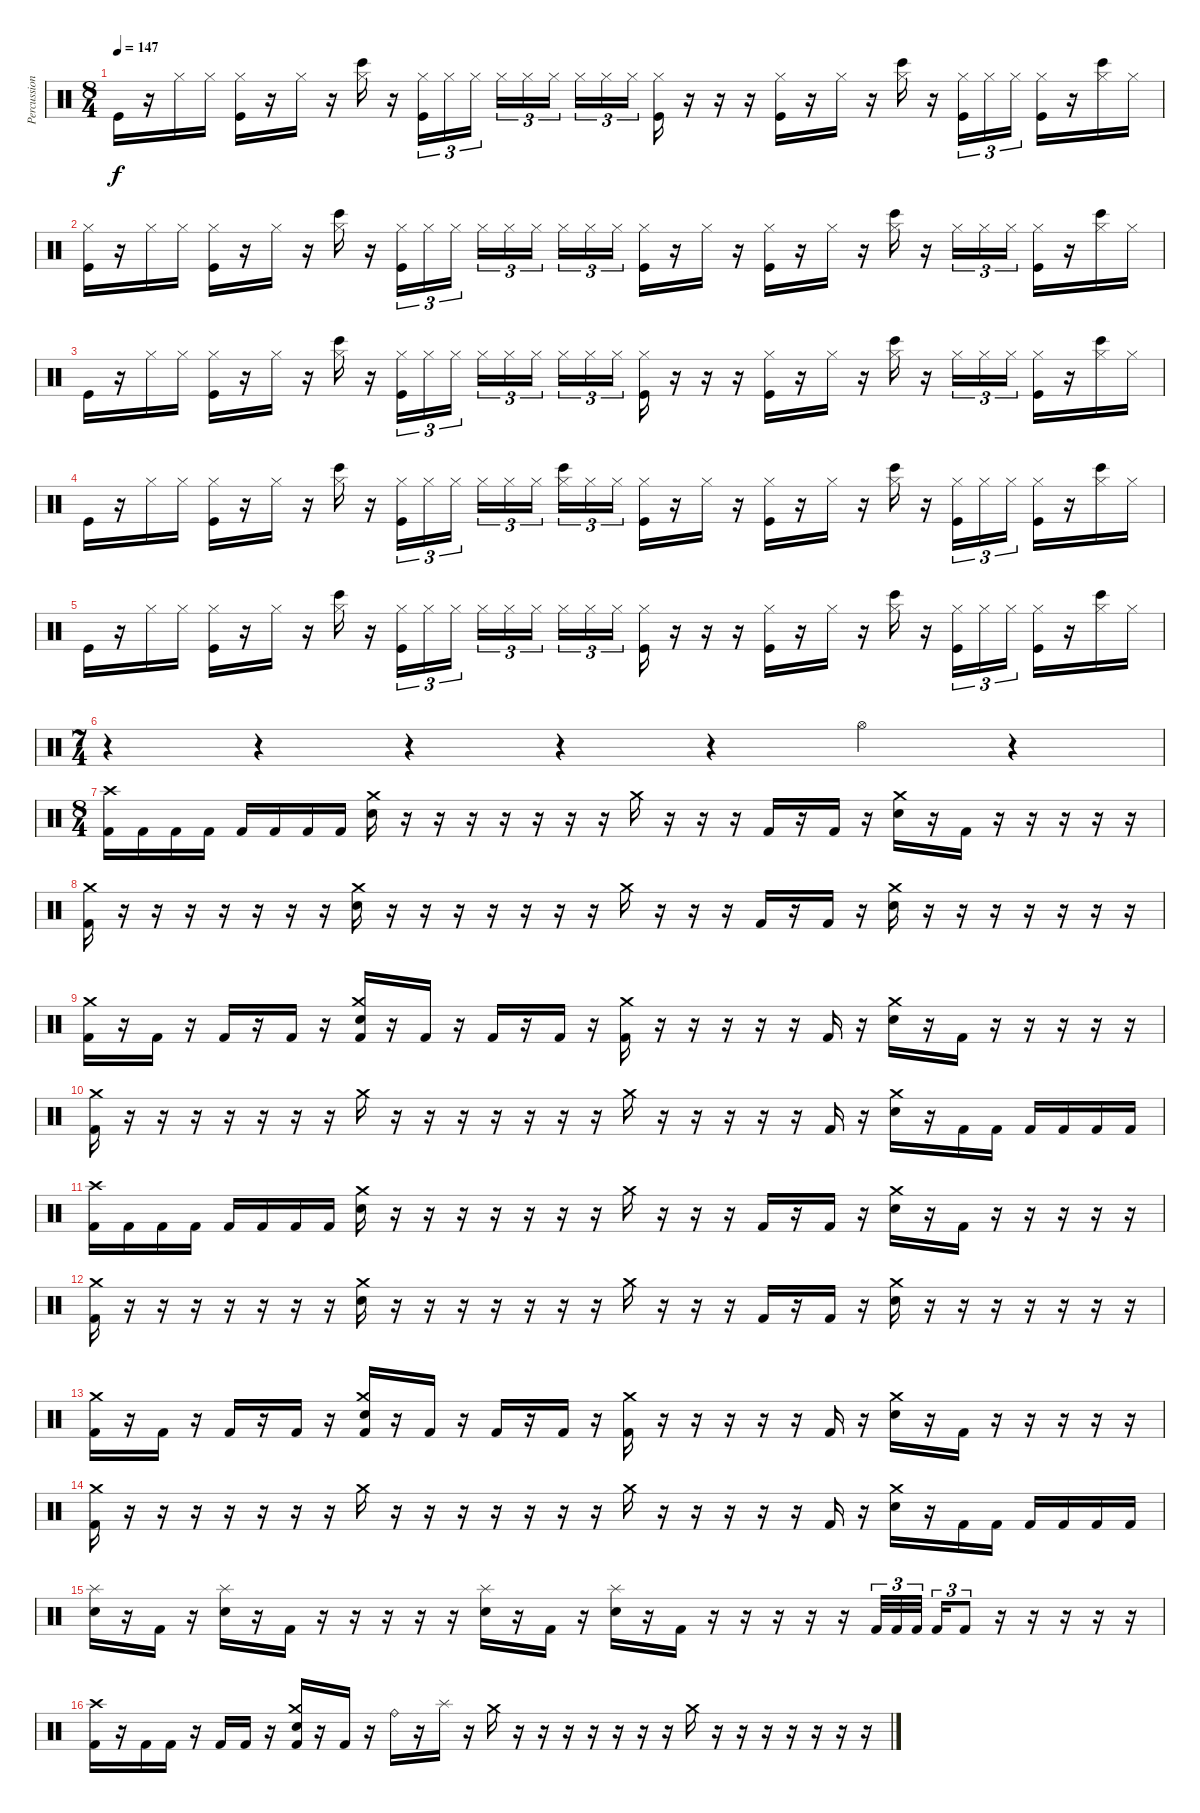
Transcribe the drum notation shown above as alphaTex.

\track ("Percussion" "Percussion") {instrument percussion}
\staff {score}
\articulation defaults
\ts (8 4)
\tempo 147
\clef neutral
\ks c "Kick (hit)".16{dy f}
r.16 "Hi-Hat (closed)".16 "Hi-Hat (closed)".16 ("Hi-Hat (closed)" "Kick (hit)").16 r.16 "Hi-Hat (closed)".16 r.16 ("Hi-Hat (closed)" "Bongo High (hit)").16 r.16 ("Hi-Hat (closed)" "Kick (hit)").16{tu (3 2)} "Hi-Hat (closed)".16{tu (3 2)} "Hi-Hat (closed)".16{tu (3 2)} "Hi-Hat (closed)".16{tu (3 2)} "Hi-Hat (closed)".16{tu (3 2)} "Hi-Hat (closed)".16{tu (3 2) beam splitsecondary} "Hi-Hat (closed)".16{tu (3 2)} "Hi-Hat (closed)".16{tu (3 2)} "Hi-Hat (closed)".16{tu (3 2)} ("Hi-Hat (closed)" "Kick (hit)").16 r.16 r.16 r.16 ("Hi-Hat (closed)" "Kick (hit)").16 r.16 "Hi-Hat (closed)".16 r.16 ("Hi-Hat (closed)" "Bongo High (hit)").16 r.16 ("Hi-Hat (closed)" "Kick (hit)").16{tu (3 2)} "Hi-Hat (closed)".16{tu (3 2)} "Hi-Hat (closed)".16{tu (3 2)} ("Hi-Hat (closed)" "Kick (hit)").16 r.16 ("Hi-Hat (closed)" "Bongo High (hit)").16 "Hi-Hat (closed)".16 |
("Hi-Hat (closed)" "Kick (hit)").16 r.16 "Hi-Hat (closed)".16 "Hi-Hat (closed)".16 ("Hi-Hat (closed)" "Kick (hit)").16 r.16 "Hi-Hat (closed)".16 r.16 ("Hi-Hat (closed)" "Bongo High (hit)").16 r.16 ("Hi-Hat (closed)" "Kick (hit)").16{tu (3 2)} "Hi-Hat (closed)".16{tu (3 2)} "Hi-Hat (closed)".16{tu (3 2)} "Hi-Hat (closed)".16{tu (3 2)} "Hi-Hat (closed)".16{tu (3 2)} "Hi-Hat (closed)".16{tu (3 2) beam splitsecondary} "Hi-Hat (closed)".16{tu (3 2)} "Hi-Hat (closed)".16{tu (3 2)} "Hi-Hat (closed)".16{tu (3 2)} ("Hi-Hat (closed)" "Kick (hit)").16 r.16 "Hi-Hat (closed)".16 r.16 ("Hi-Hat (closed)" "Kick (hit)").16 r.16 "Hi-Hat (closed)".16 r.16 ("Hi-Hat (closed)" "Bongo High (hit)").16 r.16 "Hi-Hat (closed)".16{tu (3 2)} "Hi-Hat (closed)".16{tu (3 2)} "Hi-Hat (closed)".16{tu (3 2)} ("Hi-Hat (closed)" "Kick (hit)").16 r.16 ("Hi-Hat (closed)" "Bongo High (hit)").16 "Hi-Hat (closed)".16 |
"Kick (hit)".16 r.16 "Hi-Hat (closed)".16 "Hi-Hat (closed)".16 ("Hi-Hat (closed)" "Kick (hit)").16 r.16 "Hi-Hat (closed)".16 r.16 ("Hi-Hat (closed)" "Bongo High (hit)").16 r.16 ("Hi-Hat (closed)" "Kick (hit)").16{tu (3 2)} "Hi-Hat (closed)".16{tu (3 2)} "Hi-Hat (closed)".16{tu (3 2)} "Hi-Hat (closed)".16{tu (3 2)} "Hi-Hat (closed)".16{tu (3 2)} "Hi-Hat (closed)".16{tu (3 2) beam splitsecondary} "Hi-Hat (closed)".16{tu (3 2)} "Hi-Hat (closed)".16{tu (3 2)} "Hi-Hat (closed)".16{tu (3 2)} ("Hi-Hat (closed)" "Kick (hit)").16 r.16 r.16 r.16 ("Hi-Hat (closed)" "Kick (hit)").16 r.16 "Hi-Hat (closed)".16 r.16 ("Hi-Hat (closed)" "Bongo High (hit)").16 r.16 "Hi-Hat (closed)".16{tu (3 2)} "Hi-Hat (closed)".16{tu (3 2)} "Hi-Hat (closed)".16{tu (3 2)} ("Hi-Hat (closed)" "Kick (hit)").16 r.16 ("Hi-Hat (closed)" "Bongo High (hit)").16 "Hi-Hat (closed)".16 |
"Kick (hit)".16 r.16 "Hi-Hat (closed)".16 "Hi-Hat (closed)".16 ("Hi-Hat (closed)" "Kick (hit)").16 r.16 "Hi-Hat (closed)".16 r.16 ("Hi-Hat (closed)" "Bongo High (hit)").16 r.16 ("Hi-Hat (closed)" "Kick (hit)").16{tu (3 2)} "Hi-Hat (closed)".16{tu (3 2)} "Hi-Hat (closed)".16{tu (3 2)} "Hi-Hat (closed)".16{tu (3 2)} "Hi-Hat (closed)".16{tu (3 2)} "Hi-Hat (closed)".16{tu (3 2) beam splitsecondary} ("Hi-Hat (closed)" "Bongo High (hit)").16{tu (3 2)} "Hi-Hat (closed)".16{tu (3 2)} "Hi-Hat (closed)".16{tu (3 2)} ("Hi-Hat (closed)" "Kick (hit)").16 r.16 "Hi-Hat (closed)".16 r.16 ("Hi-Hat (closed)" "Kick (hit)").16 r.16 "Hi-Hat (closed)".16 r.16 ("Hi-Hat (closed)" "Bongo High (hit)").16 r.16 ("Hi-Hat (closed)" "Kick (hit)").16{tu (3 2)} "Hi-Hat (closed)".16{tu (3 2)} "Hi-Hat (closed)".16{tu (3 2)} ("Hi-Hat (closed)" "Kick (hit)").16 r.16 ("Hi-Hat (closed)" "Bongo High (hit)").16 "Hi-Hat (closed)".16 |
"Kick (hit)".16 r.16 "Hi-Hat (closed)".16 "Hi-Hat (closed)".16 ("Hi-Hat (closed)" "Kick (hit)").16 r.16 "Hi-Hat (closed)".16 r.16 ("Hi-Hat (closed)" "Bongo High (hit)").16 r.16 ("Hi-Hat (closed)" "Kick (hit)").16{tu (3 2)} "Hi-Hat (closed)".16{tu (3 2)} "Hi-Hat (closed)".16{tu (3 2)} "Hi-Hat (closed)".16{tu (3 2)} "Hi-Hat (closed)".16{tu (3 2)} "Hi-Hat (closed)".16{tu (3 2) beam splitsecondary} "Hi-Hat (closed)".16{tu (3 2)} "Hi-Hat (closed)".16{tu (3 2)} "Hi-Hat (closed)".16{tu (3 2)} ("Hi-Hat (closed)" "Kick (hit)").16 r.16 r.16 r.16 ("Hi-Hat (closed)" "Kick (hit)").16 r.16 "Hi-Hat (closed)".16 r.16 ("Hi-Hat (closed)" "Bongo High (hit)").16 r.16 ("Hi-Hat (closed)" "Kick (hit)").16{tu (3 2)} "Hi-Hat (closed)".16{tu (3 2)} "Hi-Hat (closed)".16{tu (3 2)} ("Hi-Hat (closed)" "Kick (hit)").16 r.16 ("Hi-Hat (closed)" "Bongo High (hit)").16 "Hi-Hat (closed)".16 |
\ts (7 4)
r.4 r.4 r.4 r.4 r.4 "Hi-Hat (open)".4 r.4 |
\ts (8 4)
("Crash high (hit)" "Kick (hit) 2").16 "Kick (hit) 2".16 "Kick (hit) 2".16 "Kick (hit) 2".16 "Kick (hit) 2".16 "Kick (hit) 2".16 "Kick (hit) 2".16 "Kick (hit) 2".16 ("Crash medium (hit)" "Electric Snare (hit)").16 r.16 r.16 r.16 r.16 r.16 r.16 r.16 "Crash medium (hit)".16 r.16 r.16 r.16 "Kick (hit) 2".16 r.16 "Kick (hit) 2".16 r.16 ("Crash medium (hit)" "Electric Snare (hit)").16 r.16 "Kick (hit) 2".16 r.16 r.16 r.16 r.16 r.16 |
("Crash medium (hit)" "Kick (hit) 2").16 r.16 r.16 r.16 r.16 r.16 r.16 r.16 ("Crash medium (hit)" "Electric Snare (hit)").16 r.16 r.16 r.16 r.16 r.16 r.16 r.16 "Crash medium (hit)".16 r.16 r.16 r.16 "Kick (hit) 2".16 r.16 "Kick (hit) 2".16 r.16 ("Crash medium (hit)" "Electric Snare (hit)").16 r.16 r.16 r.16 r.16 r.16 r.16 r.16 |
("Crash medium (hit)" "Kick (hit) 2").16 r.16 "Kick (hit) 2".16 r.16 "Kick (hit) 2".16 r.16 "Kick (hit) 2".16 r.16 ("Crash medium (hit)" "Electric Snare (hit)" "Kick (hit) 2").16 r.16 "Kick (hit) 2".16 r.16 "Kick (hit) 2".16 r.16 "Kick (hit) 2".16 r.16 ("Crash medium (hit)" "Kick (hit) 2").16 r.16 r.16 r.16 r.16 r.16 "Kick (hit) 2".16 r.16 ("Crash medium (hit)" "Electric Snare (hit)").16 r.16 "Kick (hit) 2".16 r.16 r.16 r.16 r.16 r.16 |
("Crash medium (hit)" "Kick (hit) 2").16 r.16 r.16 r.16 r.16 r.16 r.16 r.16 "Crash medium (hit)".16 r.16 r.16 r.16 r.16 r.16 r.16 r.16 "Crash medium (hit)".16 r.16 r.16 r.16 r.16 r.16 "Kick (hit) 2".16 r.16 ("Crash medium (hit)" "Electric Snare (hit)").16 r.16 "Kick (hit) 2".16 "Kick (hit) 2".16 "Kick (hit) 2".16 "Kick (hit) 2".16 "Kick (hit) 2".16 "Kick (hit) 2".16 |
("Crash high (hit)" "Kick (hit) 2").16 "Kick (hit) 2".16 "Kick (hit) 2".16 "Kick (hit) 2".16 "Kick (hit) 2".16 "Kick (hit) 2".16 "Kick (hit) 2".16 "Kick (hit) 2".16 ("Crash medium (hit)" "Electric Snare (hit)").16 r.16 r.16 r.16 r.16 r.16 r.16 r.16 "Crash medium (hit)".16 r.16 r.16 r.16 "Kick (hit) 2".16 r.16 "Kick (hit) 2".16 r.16 ("Crash medium (hit)" "Electric Snare (hit)").16 r.16 "Kick (hit) 2".16 r.16 r.16 r.16 r.16 r.16 |
("Crash medium (hit)" "Kick (hit) 2").16 r.16 r.16 r.16 r.16 r.16 r.16 r.16 ("Crash medium (hit)" "Electric Snare (hit)").16 r.16 r.16 r.16 r.16 r.16 r.16 r.16 "Crash medium (hit)".16 r.16 r.16 r.16 "Kick (hit) 2".16 r.16 "Kick (hit) 2".16 r.16 ("Crash medium (hit)" "Electric Snare (hit)").16 r.16 r.16 r.16 r.16 r.16 r.16 r.16 |
("Crash medium (hit)" "Kick (hit) 2").16 r.16 "Kick (hit) 2".16 r.16 "Kick (hit) 2".16 r.16 "Kick (hit) 2".16 r.16 ("Crash medium (hit)" "Electric Snare (hit)" "Kick (hit) 2").16 r.16 "Kick (hit) 2".16 r.16 "Kick (hit) 2".16 r.16 "Kick (hit) 2".16 r.16 ("Crash medium (hit)" "Kick (hit) 2").16 r.16 r.16 r.16 r.16 r.16 "Kick (hit) 2".16 r.16 ("Crash medium (hit)" "Electric Snare (hit)").16 r.16 "Kick (hit) 2".16 r.16 r.16 r.16 r.16 r.16 |
("Crash medium (hit)" "Kick (hit) 2").16 r.16 r.16 r.16 r.16 r.16 r.16 r.16 "Crash medium (hit)".16 r.16 r.16 r.16 r.16 r.16 r.16 r.16 "Crash medium (hit)".16 r.16 r.16 r.16 r.16 r.16 "Kick (hit) 2".16 r.16 ("Crash medium (hit)" "Electric Snare (hit)").16 r.16 "Kick (hit) 2".16 "Kick (hit) 2".16 "Kick (hit) 2".16 "Kick (hit) 2".16 "Kick (hit) 2".16 "Kick (hit) 2".16 |
("Splash (hit)" "Electric Snare (hit)").16 r.16 "Kick (hit) 2".16 r.16 ("Splash (hit)" "Electric Snare (hit)").16 r.16 "Kick (hit) 2".16 r.16 r.16 r.16 r.16 r.16 ("Splash (hit)" "Electric Snare (hit)").16 r.16 "Kick (hit) 2".16 r.16 ("Splash (hit)" "Electric Snare (hit)").16 r.16 "Kick (hit) 2".16 r.16 r.16 r.16 r.16 r.16 "Kick (hit) 2".32{tu (3 2)} "Kick (hit) 2".32{tu (3 2)} "Kick (hit) 2".32{tu (3 2) beam splitsecondary} "Kick (hit) 2".16{tu (3 2)} "Kick (hit) 2".8{tu (3 2)} r.16 r.16 r.16 r.16 r.16 |
("Crash high (hit)" "Kick (hit) 2").16 r.16 "Kick (hit) 2".16 "Kick (hit) 2".16 r.16 "Kick (hit) 2".16 "Kick (hit) 2".16 r.16 ("Crash medium (hit)" "Electric Snare (hit)" "Kick (hit) 2").16 r.16 "Kick (hit) 2".16 r.16 "Ride (bell)".16 r.16 "Splash (hit)".16 r.16 "Crash medium (hit)".16 r.16 r.16 r.16 r.16 r.16 r.16 r.16 "Crash medium (hit)".16 r.16 r.16 r.16 r.16 r.16 r.16 r.16
